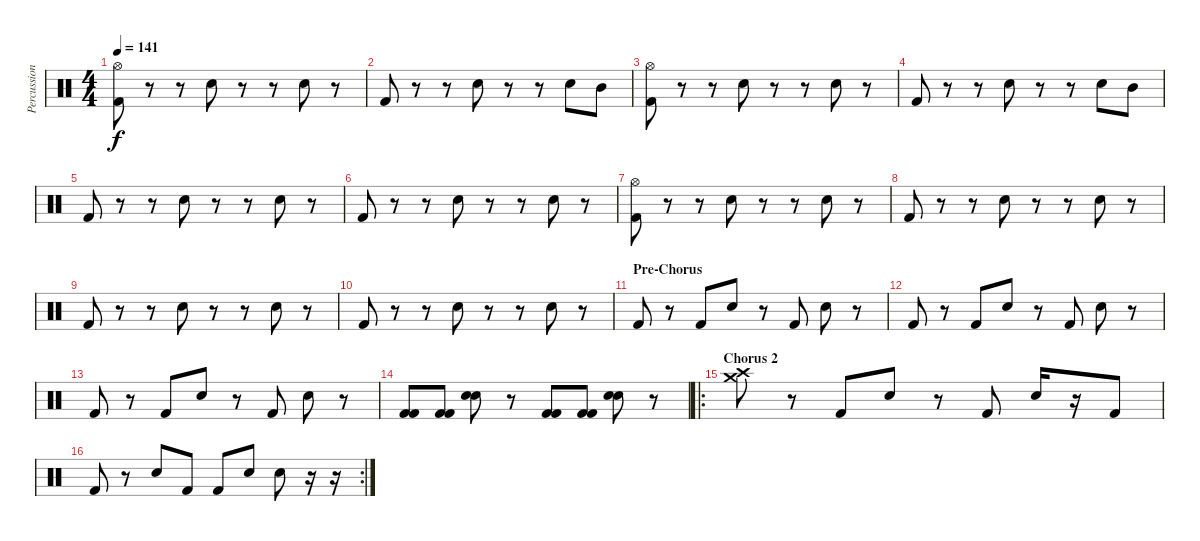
\track ("Percussion" "Percussion") {instrument percussion}
\staff {score}
\articulation defaults
\ts (4 4)
\tempo 141
\clef neutral
\ks c
("Hi-Hat (open)" "Kick (hit) 2").8{dy f} r.8 r.8 "Electric Snare (hit)".8 r.8 r.8 "Electric Snare (hit)".8 r.8 |
"Kick (hit) 2".8 r.8 r.8 "Electric Snare (hit)".8 r.8 r.8 "Electric Snare (hit)".8 "Mid Tom (hit)".8 |
("Hi-Hat (open)" "Kick (hit) 2").8 r.8 r.8 "Electric Snare (hit)".8 r.8 r.8 "Electric Snare (hit)".8 r.8 |
"Kick (hit) 2".8 r.8 r.8 "Electric Snare (hit)".8 r.8 r.8 "Electric Snare (hit)".8 "Mid Tom (hit)".8 |
"Kick (hit) 2".8 r.8 r.8 "Electric Snare (hit)".8 r.8 r.8 "Electric Snare (hit)".8 r.8 |
"Kick (hit) 2".8 r.8 r.8 "Electric Snare (hit)".8 r.8 r.8 "Electric Snare (hit)".8 r.8 |
("Hi-Hat (open)" "Kick (hit) 2").8 r.8 r.8 "Electric Snare (hit)".8 r.8 r.8 "Electric Snare (hit)".8 r.8 |
"Kick (hit) 2".8 r.8 r.8 "Electric Snare (hit)".8 r.8 r.8 "Electric Snare (hit)".8 r.8 |
"Kick (hit) 2".8 r.8 r.8 "Electric Snare (hit)".8 r.8 r.8 "Electric Snare (hit)".8 r.8 |
"Kick (hit) 2".8 r.8 r.8 "Electric Snare (hit)".8 r.8 r.8 "Electric Snare (hit)".8 r.8 |
\section ("" "Pre-Chorus")
"Kick (hit) 2".8 r.8 "Kick (hit) 2".8 "Electric Snare (hit)".8 r.8 "Kick (hit) 2".8 "Electric Snare (hit)".8 r.8 |
"Kick (hit) 2".8 r.8 "Kick (hit) 2".8 "Electric Snare (hit)".8 r.8 "Kick (hit) 2".8 "Electric Snare (hit)".8 r.8 |
"Kick (hit) 2".8 r.8 "Kick (hit) 2".8 "Electric Snare (hit)".8 r.8 "Kick (hit) 2".8 "Electric Snare (hit)".8 r.8 |
("Kick (hit) 2" "Kick (hit) 2").8 ("Kick (hit) 2" "Kick (hit) 2").8 ("Electric Snare (hit)" "Electric Snare (hit)").8 r.8 ("Kick (hit) 2" "Kick (hit) 2").8 ("Kick (hit) 2" "Kick (hit) 2").8 ("Electric Snare (hit)" "Electric Snare (hit)").8 r.8 |
\ro
\section ("" "Chorus 2")
("Crash high (hit)" "Crash medium (hit)").8 r.8 "Kick (hit) 2".8 "Electric Snare (hit)".8 r.8 "Kick (hit) 2".8 "Electric Snare (hit)".16 r.16 "Kick (hit) 2".8 |
\rc 2 "Kick (hit) 2".8
r.8 "Electric Snare (hit)".8 "Kick (hit) 2".8 "Kick (hit) 2".8 "Electric Snare (hit)".8 "Electric Snare (hit)".8 r.16 r.16
